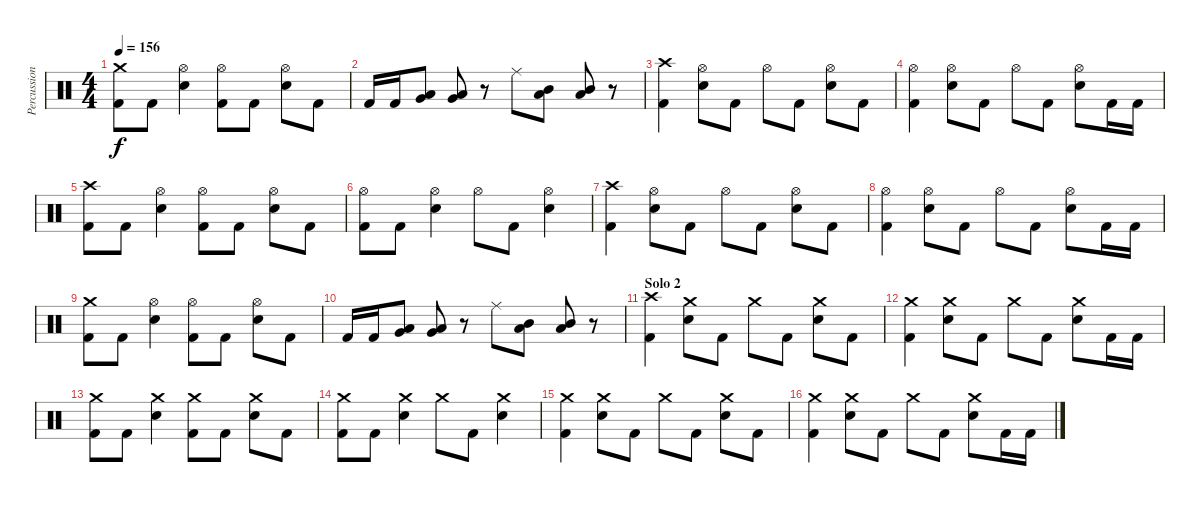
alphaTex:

\track ("Percussion" "Percussion") {instrument percussion}
\staff {score}
\articulation defaults
\ts (4 4)
\tempo 156
\clef neutral
\ks c
("Crash medium (hit)" "Kick (hit) 2").8{dy f} "Kick (hit) 2".8 ("Hi-Hat (open)" "Electric Snare (hit)").4 ("Hi-Hat (open)" "Kick (hit) 2").8 "Kick (hit) 2".8 ("Hi-Hat (open)" "Electric Snare (hit)").8 "Kick (hit) 2".8 |
"Kick (hit) 2".16 "Kick (hit) 2".16 ("Low Floor Tom (hit)" "Very Low Tom (hit)").8 ("Low Floor Tom (hit)" "Very Low Tom (hit)").8 r.8 "Ride (middle)".8 ("Mid Tom (hit)" "Low Tom (hit)").8 ("Mid Tom (hit)" "Low Tom (hit)").8 r.8 |
("Crash high (hit)" "Kick (hit) 2").4 ("Hi-Hat (open)" "Electric Snare (hit)").8 "Kick (hit) 2".8 "Hi-Hat (open)".8 "Kick (hit) 2".8 ("Hi-Hat (open)" "Electric Snare (hit)").8 "Kick (hit) 2".8 |
("Hi-Hat (open)" "Kick (hit) 2").4 ("Hi-Hat (open)" "Electric Snare (hit)").8 "Kick (hit) 2".8 "Hi-Hat (open)".8 "Kick (hit) 2".8 ("Hi-Hat (open)" "Electric Snare (hit)").8 "Kick (hit) 2".16 "Kick (hit) 2".16 |
("Crash high (hit)" "Kick (hit) 2").8 "Kick (hit) 2".8 ("Hi-Hat (open)" "Electric Snare (hit)").4 ("Hi-Hat (open)" "Kick (hit) 2").8 "Kick (hit) 2".8 ("Hi-Hat (open)" "Electric Snare (hit)").8 "Kick (hit) 2".8 |
("Hi-Hat (open)" "Kick (hit) 2").8 "Kick (hit) 2".8 ("Hi-Hat (open)" "Electric Snare (hit)").4 "Hi-Hat (open)".8 "Kick (hit) 2".8 ("Hi-Hat (open)" "Electric Snare (hit)").4 |
("Crash high (hit)" "Kick (hit) 2").4 ("Hi-Hat (open)" "Electric Snare (hit)").8 "Kick (hit) 2".8 "Hi-Hat (open)".8 "Kick (hit) 2".8 ("Hi-Hat (open)" "Electric Snare (hit)").8 "Kick (hit) 2".8 |
("Hi-Hat (open)" "Kick (hit) 2").4 ("Hi-Hat (open)" "Electric Snare (hit)").8 "Kick (hit) 2".8 "Hi-Hat (open)".8 "Kick (hit) 2".8 ("Hi-Hat (open)" "Electric Snare (hit)").8 "Kick (hit) 2".16 "Kick (hit) 2".16 |
("Crash medium (hit)" "Kick (hit) 2").8 "Kick (hit) 2".8 ("Hi-Hat (open)" "Electric Snare (hit)").4 ("Hi-Hat (open)" "Kick (hit) 2").8 "Kick (hit) 2".8 ("Hi-Hat (open)" "Electric Snare (hit)").8 "Kick (hit) 2".8 |
"Kick (hit) 2".16 "Kick (hit) 2".16 ("Low Floor Tom (hit)" "Very Low Tom (hit)").8 ("Low Floor Tom (hit)" "Very Low Tom (hit)").8 r.8 "Ride (middle)".8 ("Mid Tom (hit)" "Low Tom (hit)").8 ("Mid Tom (hit)" "Low Tom (hit)").8 r.8 |
\section ("" "Solo 2")
("Crash high (hit)" "Kick (hit) 2").4 ("Crash medium (hit)" "Electric Snare (hit)").8 "Kick (hit) 2".8 "Crash medium (hit)".8 "Kick (hit) 2".8 ("Crash medium (hit)" "Electric Snare (hit)").8 "Kick (hit) 2".8 |
("Crash medium (hit)" "Kick (hit) 2").4 ("Crash medium (hit)" "Electric Snare (hit)").8 "Kick (hit) 2".8 "Crash medium (hit)".8 "Kick (hit) 2".8 ("Crash medium (hit)" "Electric Snare (hit)").8 "Kick (hit) 2".16 "Kick (hit) 2".16 |
("Crash medium (hit)" "Kick (hit) 2").8 "Kick (hit) 2".8 ("Crash medium (hit)" "Electric Snare (hit)").4 ("Crash medium (hit)" "Kick (hit) 2").8 "Kick (hit) 2".8 ("Crash medium (hit)" "Electric Snare (hit)").8 "Kick (hit) 2".8 |
("Crash medium (hit)" "Kick (hit) 2").8 "Kick (hit) 2".8 ("Crash medium (hit)" "Electric Snare (hit)").4 "Crash medium (hit)".8 "Kick (hit) 2".8 ("Crash medium (hit)" "Electric Snare (hit)").4 |
("Crash medium (hit)" "Kick (hit) 2").4 ("Crash medium (hit)" "Electric Snare (hit)").8 "Kick (hit) 2".8 "Crash medium (hit)".8 "Kick (hit) 2".8 ("Crash medium (hit)" "Electric Snare (hit)").8 "Kick (hit) 2".8 |
("Crash medium (hit)" "Kick (hit) 2").4 ("Crash medium (hit)" "Electric Snare (hit)").8 "Kick (hit) 2".8 "Crash medium (hit)".8 "Kick (hit) 2".8 ("Crash medium (hit)" "Electric Snare (hit)").8 "Kick (hit) 2".16 "Kick (hit) 2".16
